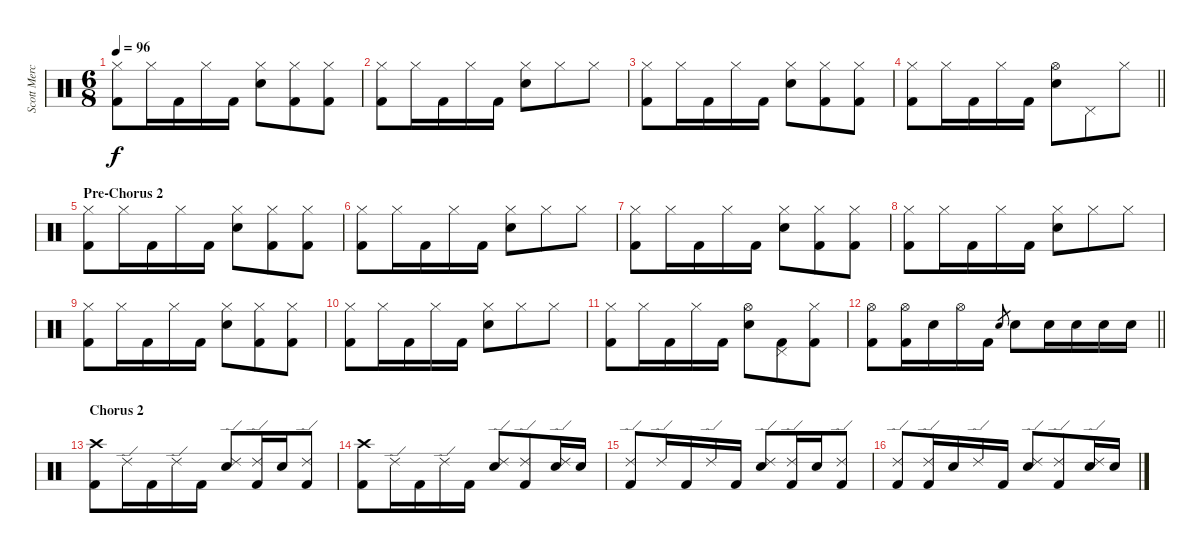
\track ("Scott Mercado Drums" "Scott Merc") {instrument percussion}
\staff {score}
\articulation defaults
\ts (6 8)
\tempo 96
\clef neutral
\ks c
("Hi-Hat (closed)" "Kick (hit) 2").8{dy f} "Hi-Hat (closed)".16 "Kick (hit) 2".16 "Hi-Hat (closed)".16 "Kick (hit) 2".16 ("Hi-Hat (closed)" "Electric Snare (hit)").8 ("Hi-Hat (closed)" "Kick (hit) 2").8 ("Hi-Hat (closed)" "Kick (hit) 2").8 |
("Hi-Hat (closed)" "Kick (hit) 2").8 "Hi-Hat (closed)".16 "Kick (hit) 2".16 "Hi-Hat (closed)".16 "Kick (hit) 2".16 ("Hi-Hat (closed)" "Electric Snare (hit)").8 "Hi-Hat (closed)".8 "Hi-Hat (closed)".8 |
("Hi-Hat (closed)" "Kick (hit) 2").8 "Hi-Hat (closed)".16 "Kick (hit) 2".16 "Hi-Hat (closed)".16 "Kick (hit) 2".16 ("Hi-Hat (closed)" "Electric Snare (hit)").8 ("Hi-Hat (closed)" "Kick (hit) 2").8 ("Hi-Hat (closed)" "Kick (hit) 2").8 |
\barLineRight lightlight
("Hi-Hat (closed)" "Kick (hit) 2").8 "Hi-Hat (closed)".16 "Kick (hit) 2".16 "Hi-Hat (closed)".16 "Kick (hit) 2".16 ("Hi-Hat (open)" "Electric Snare (hit)").8 "Pedal Hi-Hat (hit)".8 "Hi-Hat (closed)".8 |
\section ("" "Pre-Chorus 2")
("Hi-Hat (closed)" "Kick (hit) 2").8 "Hi-Hat (closed)".16 "Kick (hit) 2".16 "Hi-Hat (closed)".16 "Kick (hit) 2".16 ("Hi-Hat (closed)" "Electric Snare (hit)").8 ("Hi-Hat (closed)" "Kick (hit) 2").8 ("Hi-Hat (closed)" "Kick (hit) 2").8 |
("Hi-Hat (closed)" "Kick (hit) 2").8 "Hi-Hat (closed)".16 "Kick (hit) 2".16 "Hi-Hat (closed)".16 "Kick (hit) 2".16 ("Hi-Hat (closed)" "Electric Snare (hit)").8 "Hi-Hat (closed)".8 "Hi-Hat (closed)".8 |
("Hi-Hat (closed)" "Kick (hit) 2").8 "Hi-Hat (closed)".16 "Kick (hit) 2".16 "Hi-Hat (closed)".16 "Kick (hit) 2".16 ("Hi-Hat (closed)" "Electric Snare (hit)").8 ("Hi-Hat (closed)" "Kick (hit) 2").8 ("Hi-Hat (closed)" "Kick (hit) 2").8 |
("Hi-Hat (closed)" "Kick (hit) 2").8 "Hi-Hat (closed)".16 "Kick (hit) 2".16 "Hi-Hat (closed)".16 "Kick (hit) 2".16 ("Hi-Hat (closed)" "Electric Snare (hit)").8 "Hi-Hat (closed)".8 "Hi-Hat (closed)".8 |
("Hi-Hat (closed)" "Kick (hit) 2").8 "Hi-Hat (closed)".16 "Kick (hit) 2".16 "Hi-Hat (closed)".16 "Kick (hit) 2".16 ("Hi-Hat (closed)" "Electric Snare (hit)").8 ("Hi-Hat (closed)" "Kick (hit) 2").8 ("Hi-Hat (closed)" "Kick (hit) 2").8 |
("Hi-Hat (closed)" "Kick (hit) 2").8 "Hi-Hat (closed)".16 "Kick (hit) 2".16 "Hi-Hat (closed)".16 "Kick (hit) 2".16 ("Hi-Hat (closed)" "Electric Snare (hit)").8 "Hi-Hat (closed)".8 "Hi-Hat (closed)".8 |
("Hi-Hat (closed)" "Kick (hit) 2").8 "Hi-Hat (closed)".16 "Kick (hit) 2".16 "Hi-Hat (closed)".16 "Kick (hit) 2".16 ("Hi-Hat (open)" "Electric Snare (hit)").8 ("Pedal Hi-Hat (hit)" "Kick (hit) 2").8 ("Hi-Hat (closed)" "Kick (hit) 2").8 |
\barLineRight lightlight
("Hi-Hat (open)" "Kick (hit) 2").8 ("Hi-Hat (open)" "Kick (hit) 2").16 "Electric Snare (hit)".16 "Hi-Hat (open)".16 "Kick (hit) 2".16 "Electric Snare (hit)".8{gr} "Electric Snare (hit)".8 "Electric Snare (hit)".16 "Electric Snare (hit)".16 "Electric Snare (hit)".16 "Electric Snare (hit)".16 |
\section ("" "Chorus 2")
("Crash high (hit)" "Kick (hit) 2").8 "Ride (edge) 2".16 "Kick (hit) 2".16 "Ride (edge) 2".16 "Kick (hit) 2".16 ("Ride (edge) 2" "Electric Snare (hit)").8 ("Ride (edge) 2" "Kick (hit) 2").16 "Electric Snare (hit)".16 ("Ride (edge) 2" "Kick (hit) 2").8 |
("Crash high (hit)" "Kick (hit) 2").8 "Ride (edge) 2".16 "Kick (hit) 2".16 "Ride (edge) 2".16 "Kick (hit) 2".16 ("Ride (edge) 2" "Electric Snare (hit)").8 ("Ride (edge) 2" "Kick (hit) 2").8 ("Ride (edge) 2" "Electric Snare (hit)").16 "Electric Snare (hit)".16 |
("Ride (edge) 2" "Kick (hit) 2").8 "Ride (edge) 2".16 "Kick (hit) 2".16 "Ride (edge) 2".16 "Kick (hit) 2".16 ("Ride (edge) 2" "Electric Snare (hit)").8 ("Ride (edge) 2" "Kick (hit) 2").16 "Electric Snare (hit)".16 ("Ride (edge) 2" "Kick (hit) 2").8 |
("Ride (edge) 2" "Kick (hit) 2").8 ("Ride (edge) 2" "Kick (hit) 2").16 "Electric Snare (hit)".16 "Ride (edge) 2".16 "Kick (hit) 2".16 ("Ride (edge) 2" "Electric Snare (hit)").8 ("Ride (edge) 2" "Kick (hit) 2").8 ("Ride (edge) 2" "Electric Snare (hit)").16 "Electric Snare (hit)".16
